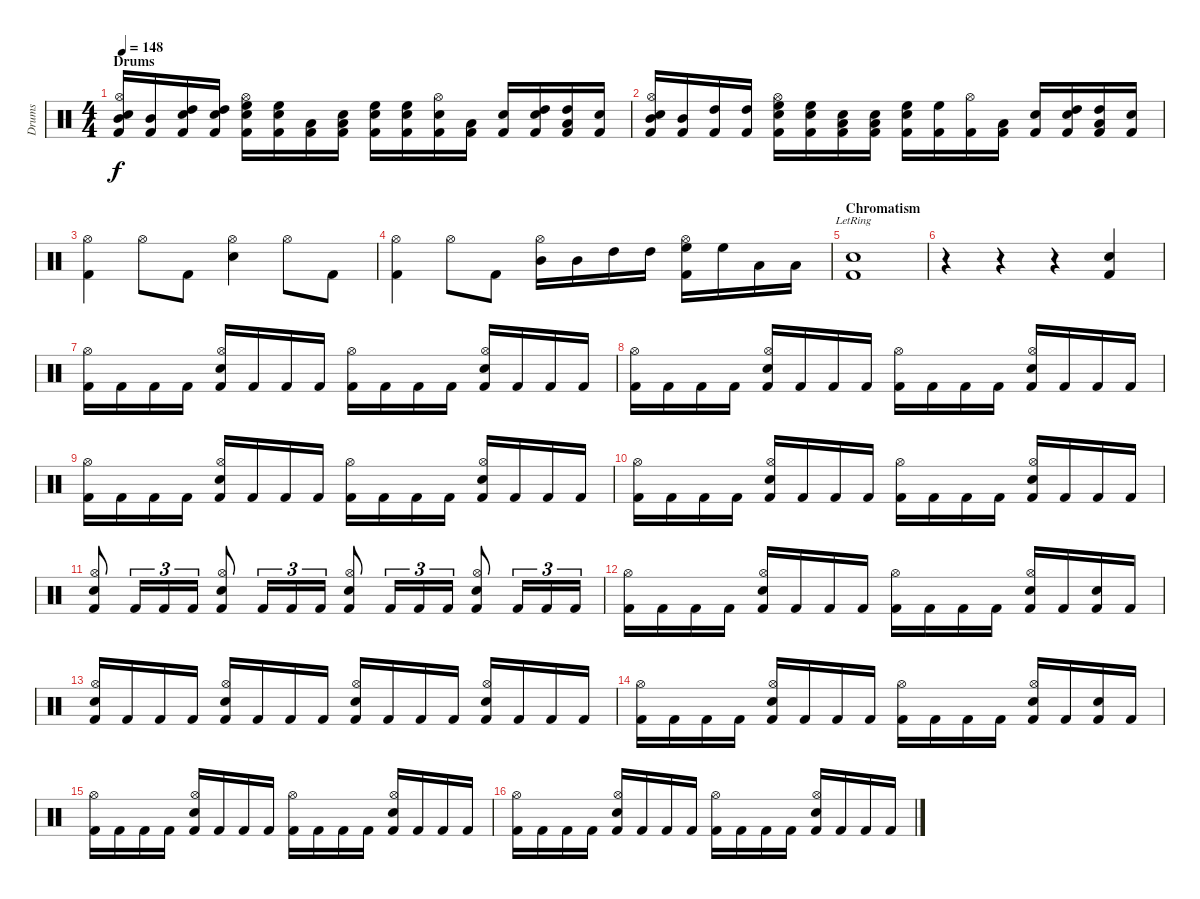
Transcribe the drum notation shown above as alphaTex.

\track ("Drums" "Drums") {instrument percussion}
\staff {score}
\articulation defaults
\ts (4 4)
\section ("" "Drums")
\tempo 148
\clef neutral
\ks c
("Snare (hit) 2" "Hi-Hat (open)" "Mid Tom (hit)" "Kick (hit) 2").16{dy f} ("Mid Tom (hit)" "Kick (hit) 2").16 ("Snare (hit) 2" "High Tom (hit)" "Kick (hit) 2").16 ("Snare (hit) 2" "High Tom (hit)" "Kick (hit) 2").16 ("Snare (hit) 2" "Hi-Hat (open)" "High Floor Tom (hit)" "Kick (hit) 2").16 ("Snare (hit) 2" "High Floor Tom (hit)" "Kick (hit) 2").16 ("Low Tom (hit)" "Kick (hit) 2").16 ("Snare (hit) 2" "Low Tom (hit)" "Kick (hit) 2").16 ("Snare (hit) 2" "High Floor Tom (hit)" "Kick (hit) 2").16 ("Snare (hit) 2" "High Floor Tom (hit)" "Kick (hit) 2").16 ("Snare (hit) 2" "Hi-Hat (open)" "Kick (hit) 2").16 ("Low Tom (hit)" "Kick (hit) 2").16 ("Snare (hit) 2" "Kick (hit) 2").16 ("Snare (hit) 2" "High Tom (hit)" "Kick (hit) 2").16 ("Low Tom (hit)" "High Tom (hit)" "Kick (hit) 2").16 ("Snare (hit) 2" "Kick (hit) 2").16 |
("Snare (hit) 2" "Hi-Hat (open)" "Mid Tom (hit)" "Kick (hit) 2").16 ("Mid Tom (hit)" "Kick (hit) 2").16 ("High Tom (hit)" "Kick (hit) 2").16 ("High Tom (hit)" "Kick (hit) 2").16 ("Snare (hit) 2" "Hi-Hat (open)" "High Floor Tom (hit)" "Kick (hit) 2").16 ("Snare (hit) 2" "High Floor Tom (hit)" "Kick (hit) 2").16 ("Snare (hit) 2" "Low Tom (hit)" "Kick (hit) 2").16 ("Snare (hit) 2" "Low Tom (hit)" "Kick (hit) 2").16 ("Snare (hit) 2" "High Floor Tom (hit)" "Kick (hit) 2").16 ("High Floor Tom (hit)" "Kick (hit) 2").16 ("Hi-Hat (open)" "Kick (hit) 2").16 ("Low Tom (hit)" "Kick (hit) 2").16 ("Snare (hit) 2" "Kick (hit) 2").16 ("Snare (hit) 2" "High Tom (hit)" "Kick (hit) 2").16 ("Low Tom (hit)" "High Tom (hit)" "Kick (hit) 2").16 ("Snare (hit) 2" "Kick (hit) 2").16 |
("Hi-Hat (open)" "Kick (hit) 2").4 "Hi-Hat (open)".8 "Kick (hit) 2".8 ("Hi-Hat (open)" "Snare (hit) 2").4 "Hi-Hat (open)".8 "Kick (hit) 2".8 |
("Hi-Hat (open)" "Kick (hit) 2").4 "Hi-Hat (open)".8 "Kick (hit) 2".8 ("Hi-Hat (open)" "Mid Tom (hit)").16 "Mid Tom (hit)".16 "High Tom (hit)".16 "High Tom (hit)".16 ("Hi-Hat (open)" "High Floor Tom (hit)" "Kick (hit) 2").16 "High Floor Tom (hit)".16 "Low Tom (hit)".16 "Low Tom (hit)".16 |
\section ("" "Chromatism")
("Snare (hit) 2"{lr} "Kick (hit) 2"{lr}).1 |
r.4 r.4 r.4 ("Snare (hit) 2" "Kick (hit) 2").4 |
("Hi-Hat (open)" "Kick (hit) 2").16 "Kick (hit) 2".16 "Kick (hit) 2".16 "Kick (hit) 2".16 ("Hi-Hat (open)" "Snare (hit) 2" "Kick (hit) 2").16 "Kick (hit) 2".16 "Kick (hit) 2".16 "Kick (hit) 2".16 ("Hi-Hat (open)" "Kick (hit) 2").16 "Kick (hit) 2".16 "Kick (hit) 2".16 "Kick (hit) 2".16 ("Hi-Hat (open)" "Snare (hit) 2" "Kick (hit) 2").16 "Kick (hit) 2".16 "Kick (hit) 2".16 "Kick (hit) 2".16 |
("Hi-Hat (open)" "Kick (hit) 2").16 "Kick (hit) 2".16 "Kick (hit) 2".16 "Kick (hit) 2".16 ("Hi-Hat (open)" "Snare (hit) 2" "Kick (hit) 2").16 "Kick (hit) 2".16 "Kick (hit) 2".16 "Kick (hit) 2".16 ("Hi-Hat (open)" "Kick (hit) 2").16 "Kick (hit) 2".16 "Kick (hit) 2".16 "Kick (hit) 2".16 ("Hi-Hat (open)" "Snare (hit) 2" "Kick (hit) 2").16 "Kick (hit) 2".16 "Kick (hit) 2".16 "Kick (hit) 2".16 |
("Hi-Hat (open)" "Kick (hit) 2").16 "Kick (hit) 2".16 "Kick (hit) 2".16 "Kick (hit) 2".16 ("Hi-Hat (open)" "Snare (hit) 2" "Kick (hit) 2").16 "Kick (hit) 2".16 "Kick (hit) 2".16 "Kick (hit) 2".16 ("Hi-Hat (open)" "Kick (hit) 2").16 "Kick (hit) 2".16 "Kick (hit) 2".16 "Kick (hit) 2".16 ("Hi-Hat (open)" "Snare (hit) 2" "Kick (hit) 2").16 "Kick (hit) 2".16 "Kick (hit) 2".16 "Kick (hit) 2".16 |
("Hi-Hat (open)" "Kick (hit) 2").16 "Kick (hit) 2".16 "Kick (hit) 2".16 "Kick (hit) 2".16 ("Hi-Hat (open)" "Snare (hit) 2" "Kick (hit) 2").16 "Kick (hit) 2".16 "Kick (hit) 2".16 "Kick (hit) 2".16 ("Hi-Hat (open)" "Kick (hit) 2").16 "Kick (hit) 2".16 "Kick (hit) 2".16 "Kick (hit) 2".16 ("Hi-Hat (open)" "Snare (hit) 2" "Kick (hit) 2").16 "Kick (hit) 2".16 "Kick (hit) 2".16 "Kick (hit) 2".16 |
("Hi-Hat (open)" "Snare (hit) 2" "Kick (hit) 2").8 "Kick (hit) 2".16{tu (3 2)} "Kick (hit) 2".16{tu (3 2)} "Kick (hit) 2".16{tu (3 2)} ("Hi-Hat (open)" "Snare (hit) 2" "Kick (hit) 2").8 "Kick (hit) 2".16{tu (3 2)} "Kick (hit) 2".16{tu (3 2)} "Kick (hit) 2".16{tu (3 2)} ("Hi-Hat (open)" "Snare (hit) 2" "Kick (hit) 2").8 "Kick (hit) 2".16{tu (3 2)} "Kick (hit) 2".16{tu (3 2)} "Kick (hit) 2".16{tu (3 2)} ("Hi-Hat (open)" "Snare (hit) 2" "Kick (hit) 2").8 "Kick (hit) 2".16{tu (3 2)} "Kick (hit) 2".16{tu (3 2)} "Kick (hit) 2".16{tu (3 2)} |
("Hi-Hat (open)" "Kick (hit) 2").16 "Kick (hit) 2".16 "Kick (hit) 2".16 "Kick (hit) 2".16 ("Hi-Hat (open)" "Snare (hit) 2" "Kick (hit) 2").16 "Kick (hit) 2".16 "Kick (hit) 2".16 "Kick (hit) 2".16 ("Hi-Hat (open)" "Kick (hit) 2").16 "Kick (hit) 2".16 "Kick (hit) 2".16 "Kick (hit) 2".16 ("Hi-Hat (open)" "Snare (hit) 2" "Kick (hit) 2").16 "Kick (hit) 2".16 ("Snare (hit) 2" "Kick (hit) 2").16 "Kick (hit) 2".16 |
("Hi-Hat (open)" "Snare (hit) 2" "Kick (hit) 2").16 "Kick (hit) 2".16 "Kick (hit) 2".16 "Kick (hit) 2".16 ("Hi-Hat (open)" "Snare (hit) 2" "Kick (hit) 2").16 "Kick (hit) 2".16 "Kick (hit) 2".16 "Kick (hit) 2".16 ("Hi-Hat (open)" "Snare (hit) 2" "Kick (hit) 2").16 "Kick (hit) 2".16 "Kick (hit) 2".16 "Kick (hit) 2".16 ("Hi-Hat (open)" "Snare (hit) 2" "Kick (hit) 2").16 "Kick (hit) 2".16 "Kick (hit) 2".16 "Kick (hit) 2".16 |
("Hi-Hat (open)" "Kick (hit) 2").16 "Kick (hit) 2".16 "Kick (hit) 2".16 "Kick (hit) 2".16 ("Hi-Hat (open)" "Snare (hit) 2" "Kick (hit) 2").16 "Kick (hit) 2".16 "Kick (hit) 2".16 "Kick (hit) 2".16 ("Hi-Hat (open)" "Kick (hit) 2").16 "Kick (hit) 2".16 "Kick (hit) 2".16 "Kick (hit) 2".16 ("Hi-Hat (open)" "Snare (hit) 2" "Kick (hit) 2").16 "Kick (hit) 2".16 ("Snare (hit) 2" "Kick (hit) 2").16 "Kick (hit) 2".16 |
("Hi-Hat (open)" "Kick (hit) 2").16 "Kick (hit) 2".16 "Kick (hit) 2".16 "Kick (hit) 2".16 ("Hi-Hat (open)" "Snare (hit) 2" "Kick (hit) 2").16 "Kick (hit) 2".16 "Kick (hit) 2".16 "Kick (hit) 2".16 ("Hi-Hat (open)" "Kick (hit) 2").16 "Kick (hit) 2".16 "Kick (hit) 2".16 "Kick (hit) 2".16 ("Hi-Hat (open)" "Snare (hit) 2" "Kick (hit) 2").16 "Kick (hit) 2".16 "Kick (hit) 2".16 "Kick (hit) 2".16 |
("Hi-Hat (open)" "Kick (hit) 2").16 "Kick (hit) 2".16 "Kick (hit) 2".16 "Kick (hit) 2".16 ("Hi-Hat (open)" "Snare (hit) 2" "Kick (hit) 2").16 "Kick (hit) 2".16 "Kick (hit) 2".16 "Kick (hit) 2".16 ("Hi-Hat (open)" "Kick (hit) 2").16 "Kick (hit) 2".16 "Kick (hit) 2".16 "Kick (hit) 2".16 ("Hi-Hat (open)" "Snare (hit) 2" "Kick (hit) 2").16 "Kick (hit) 2".16 "Kick (hit) 2".16 "Kick (hit) 2".16
